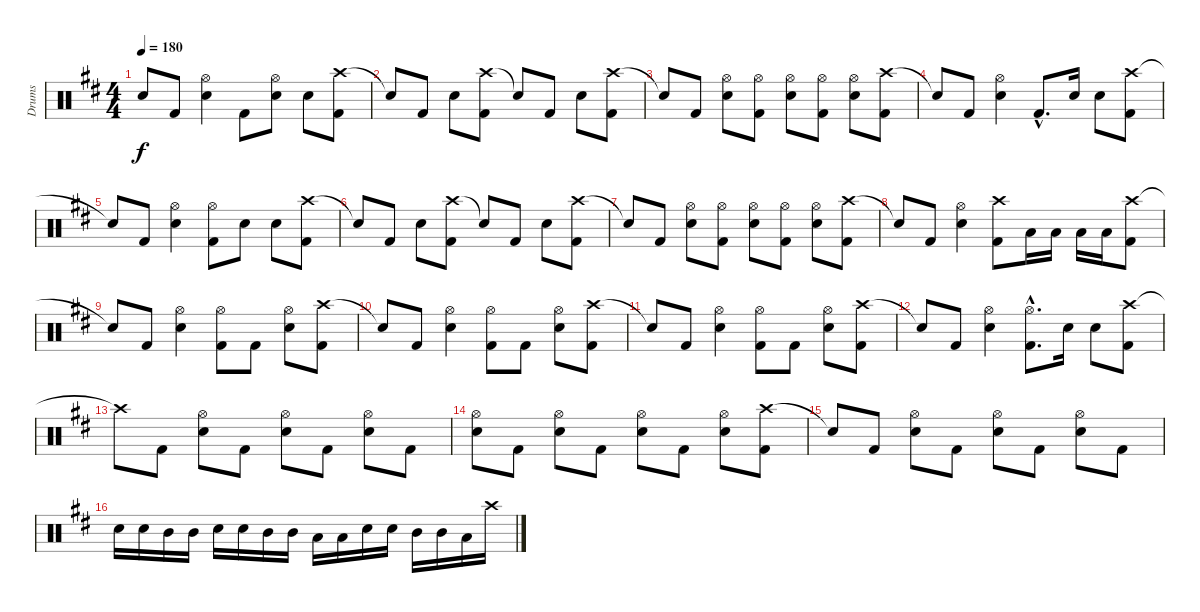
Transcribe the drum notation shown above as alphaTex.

\track ("Drums" "Drums") {instrument percussion}
\staff {score}
\articulation defaults
\ts (4 4)
\tempo 180
\clef neutral
\ks bminor "Snare (hit)"{t}.8{dy f} "Kick (hit) 2".8
("Hi-Hat (open)" "Electric Snare (hit)").4 "Kick (hit) 2".8 ("Hi-Hat (open)" "Electric Snare (hit)").8 "Electric Snare (hit)".8 ("Crash high (hit)" "Kick (hit) 2").8 |
"Snare (hit)"{t}.8 "Kick (hit) 2".8 "Electric Snare (hit)".8 ("Crash high (hit)" "Kick (hit) 2").8 "Snare (hit)"{t}.8 "Kick (hit) 2".8 "Electric Snare (hit)".8 ("Crash high (hit)" "Kick (hit) 2").8 |
"Snare (hit)"{t}.8 "Kick (hit) 2".8 ("Hi-Hat (open)" "Electric Snare (hit)").8 ("Hi-Hat (open)" "Kick (hit) 2").8 ("Hi-Hat (open)" "Electric Snare (hit)").8 ("Hi-Hat (open)" "Kick (hit) 2").8 ("Hi-Hat (open)" "Electric Snare (hit)").8 ("Crash high (hit)" "Kick (hit) 2").8 |
"Snare (hit)"{t}.8 "Kick (hit) 2".8 ("Hi-Hat (open)" "Electric Snare (hit)").4 "Kick (hit) 2"{hac}.8{d} "Electric Snare (hit)".16 "Electric Snare (hit)".8 ("Crash high (hit)" "Kick (hit) 2").8 |
"Snare (hit)"{t}.8 "Kick (hit) 2".8 ("Hi-Hat (open)" "Electric Snare (hit)").4 ("Hi-Hat (open)" "Kick (hit) 2").8 "Electric Snare (hit)".8 "Electric Snare (hit)".8 ("Crash high (hit)" "Kick (hit) 2").8 |
"Snare (hit)"{t}.8 "Kick (hit) 2".8 "Electric Snare (hit)".8 ("Crash high (hit)" "Kick (hit) 2").8 "Snare (hit)"{t}.8 "Kick (hit) 2".8 "Electric Snare (hit)".8 ("Crash high (hit)" "Kick (hit) 2").8 |
"Snare (hit)"{t}.8 "Kick (hit) 2".8 ("Hi-Hat (open)" "Electric Snare (hit)").8 ("Hi-Hat (open)" "Kick (hit) 2").8 ("Hi-Hat (open)" "Electric Snare (hit)").8 ("Hi-Hat (open)" "Kick (hit) 2").8 ("Hi-Hat (open)" "Electric Snare (hit)").8 ("Crash high (hit)" "Kick (hit) 2").8 |
"Snare (hit)"{t}.8 "Kick (hit) 2".8 ("Hi-Hat (open)" "Electric Snare (hit)").4 ("Crash high (hit)" "Kick (hit) 2").8 "Low Floor Tom (hit)".16 "Low Floor Tom (hit)".16 "Low Floor Tom (hit)".16 "Low Floor Tom (hit)".16 ("Crash high (hit)" "Kick (hit) 2").8 |
"Snare (hit)"{t}.8 "Kick (hit) 2".8 ("Hi-Hat (open)" "Electric Snare (hit)").4 ("Hi-Hat (open)" "Kick (hit) 2").8 "Kick (hit) 2".8 ("Hi-Hat (open)" "Electric Snare (hit)").8 ("Crash high (hit)" "Kick (hit) 2").8 |
"Snare (hit)"{t}.8 "Kick (hit) 2".8 ("Hi-Hat (open)" "Electric Snare (hit)").4 ("Hi-Hat (open)" "Kick (hit) 2").8 "Kick (hit) 2".8 ("Hi-Hat (open)" "Electric Snare (hit)").8 ("Crash high (hit)" "Kick (hit) 2").8 |
"Snare (hit)"{t}.8 "Kick (hit) 2".8 ("Hi-Hat (open)" "Electric Snare (hit)").4 ("Hi-Hat (open)" "Kick (hit) 2").8 "Kick (hit) 2".8 ("Hi-Hat (open)" "Electric Snare (hit)").8 ("Crash high (hit)" "Kick (hit) 2").8 |
"Snare (hit)"{t}.8 "Kick (hit) 2".8 ("Hi-Hat (open)" "Electric Snare (hit)").4 ("Hi-Hat (open)"{hac} "Kick (hit) 2"{hac}).8{d} "Electric Snare (hit)".16 "Electric Snare (hit)".8 ("Crash high (hit)" "Kick (hit) 2").8 |
"Crash high (hit)"{t}.8 "Kick (hit) 2".8 ("Hi-Hat (open)" "Electric Snare (hit)").8 "Kick (hit) 2".8 ("Hi-Hat (open)" "Electric Snare (hit)").8 "Kick (hit) 2".8 ("Hi-Hat (open)" "Electric Snare (hit)").8 "Kick (hit) 2".8 |
("Hi-Hat (open)" "Electric Snare (hit)").8 "Kick (hit) 2".8 ("Hi-Hat (open)" "Electric Snare (hit)").8 "Kick (hit) 2".8 ("Hi-Hat (open)" "Electric Snare (hit)").8 "Kick (hit) 2".8 ("Hi-Hat (open)" "Electric Snare (hit)").8 ("Crash high (hit)" "Kick (hit) 2").8 |
"Snare (hit)"{t}.8 "Kick (hit) 2".8 ("Hi-Hat (open)" "Electric Snare (hit)").8 "Kick (hit) 2".8 ("Hi-Hat (open)" "Electric Snare (hit)").8 "Kick (hit) 2".8 ("Hi-Hat (open)" "Electric Snare (hit)").8 "Kick (hit) 2".8 |
"Electric Snare (hit)".16 "Electric Snare (hit)".16 "Mid Tom (hit)".16 "Mid Tom (hit)".16 "Electric Snare (hit)".16 "Electric Snare (hit)".16 "Mid Tom (hit)".16 "Mid Tom (hit)".16 "Low Tom (hit)".16 "Low Tom (hit)".16 "Electric Snare (hit)".16 "Electric Snare (hit)".16 "Mid Tom (hit)".16 "Mid Tom (hit)".16 "Low Tom (hit)".16 "Crash high (hit)".16
